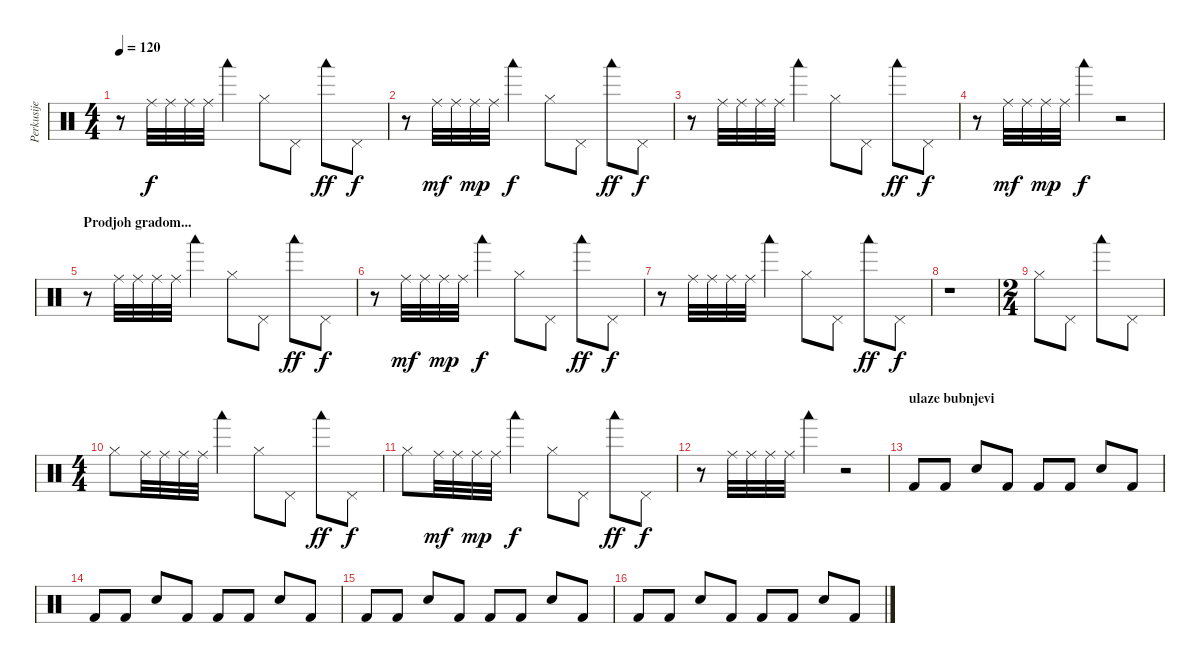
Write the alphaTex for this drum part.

\track ("Perkusije" "Perkusije") {instrument percussion}
\staff {score}
\articulation defaults
\ts (4 4)
\tempo 120
\clef neutral
\ks c
r.8{dy f} "Ride (middle)".32 "Ride (middle)".32 "Ride (middle)".32 "Ride (middle)".32 "Woodblock low (hit)".4 "Hi-Hat (closed)".8 "Pedal Hi-Hat (hit)".8 "Woodblock low (hit)".8{dy ff} "Pedal Hi-Hat (hit)".8{dy f} |
r.8 "Ride (middle)".32{dy mf} "Ride (middle)".32 "Ride (middle)".32{dy mp} "Ride (middle)".32 "Woodblock low (hit)".4{dy f} "Hi-Hat (closed)".8 "Pedal Hi-Hat (hit)".8 "Woodblock low (hit)".8{dy ff} "Pedal Hi-Hat (hit)".8{dy f} |
r.8 "Ride (middle)".32 "Ride (middle)".32 "Ride (middle)".32 "Ride (middle)".32 "Woodblock low (hit)".4 "Hi-Hat (closed)".8 "Pedal Hi-Hat (hit)".8 "Woodblock low (hit)".8{dy ff} "Pedal Hi-Hat (hit)".8{dy f} |
r.8 "Ride (middle)".32{dy mf} "Ride (middle)".32 "Ride (middle)".32{dy mp} "Ride (middle)".32 "Woodblock low (hit)".4{dy f} r.2 |
\section ("" "Prodjoh gradom...")
r.8 "Ride (middle)".32 "Ride (middle)".32 "Ride (middle)".32 "Ride (middle)".32 "Woodblock low (hit)".4 "Hi-Hat (closed)".8 "Pedal Hi-Hat (hit)".8 "Woodblock low (hit)".8{dy ff} "Pedal Hi-Hat (hit)".8{dy f} |
r.8 "Ride (middle)".32{dy mf} "Ride (middle)".32 "Ride (middle)".32{dy mp} "Ride (middle)".32 "Woodblock low (hit)".4{dy f} "Hi-Hat (closed)".8 "Pedal Hi-Hat (hit)".8 "Woodblock low (hit)".8{dy ff} "Pedal Hi-Hat (hit)".8{dy f} |
r.8 "Ride (middle)".32 "Ride (middle)".32 "Ride (middle)".32 "Ride (middle)".32 "Woodblock low (hit)".4 "Hi-Hat (closed)".8 "Pedal Hi-Hat (hit)".8 "Woodblock low (hit)".8{dy ff} "Pedal Hi-Hat (hit)".8{dy f} |
r.1 |
\ts (2 4)
"Hi-Hat (closed)".8 "Pedal Hi-Hat (hit)".8 "Woodblock low (hit)".8 "Pedal Hi-Hat (hit)".8 |
\ts (4 4)
"Hi-Hat (closed)".8 "Ride (middle)".32 "Ride (middle)".32 "Ride (middle)".32 "Ride (middle)".32 "Woodblock low (hit)".4 "Hi-Hat (closed)".8 "Pedal Hi-Hat (hit)".8 "Woodblock low (hit)".8{dy ff} "Pedal Hi-Hat (hit)".8{dy f} |
"Hi-Hat (closed)".8 "Ride (middle)".32{dy mf} "Ride (middle)".32 "Ride (middle)".32{dy mp} "Ride (middle)".32 "Woodblock low (hit)".4{dy f} "Hi-Hat (closed)".8 "Pedal Hi-Hat (hit)".8 "Woodblock low (hit)".8{dy ff} "Pedal Hi-Hat (hit)".8{dy f} |
r.8 "Ride (middle)".32 "Ride (middle)".32 "Ride (middle)".32 "Ride (middle)".32 "Woodblock low (hit)".4 r.2 |
\section ("" "ulaze bubnjevi")
"Kick (hit) 2".8 "Kick (hit) 2".8 "Electric Snare (hit)".8 "Kick (hit) 2".8 "Kick (hit) 2".8 "Kick (hit) 2".8 "Electric Snare (hit)".8 "Kick (hit) 2".8 |
"Kick (hit) 2".8 "Kick (hit) 2".8 "Electric Snare (hit)".8 "Kick (hit) 2".8 "Kick (hit) 2".8 "Kick (hit) 2".8 "Electric Snare (hit)".8 "Kick (hit) 2".8 |
"Kick (hit) 2".8 "Kick (hit) 2".8 "Electric Snare (hit)".8 "Kick (hit) 2".8 "Kick (hit) 2".8 "Kick (hit) 2".8 "Electric Snare (hit)".8 "Kick (hit) 2".8 |
"Kick (hit) 2".8 "Kick (hit) 2".8 "Electric Snare (hit)".8 "Kick (hit) 2".8 "Kick (hit) 2".8 "Kick (hit) 2".8 "Electric Snare (hit)".8 "Kick (hit) 2".8
